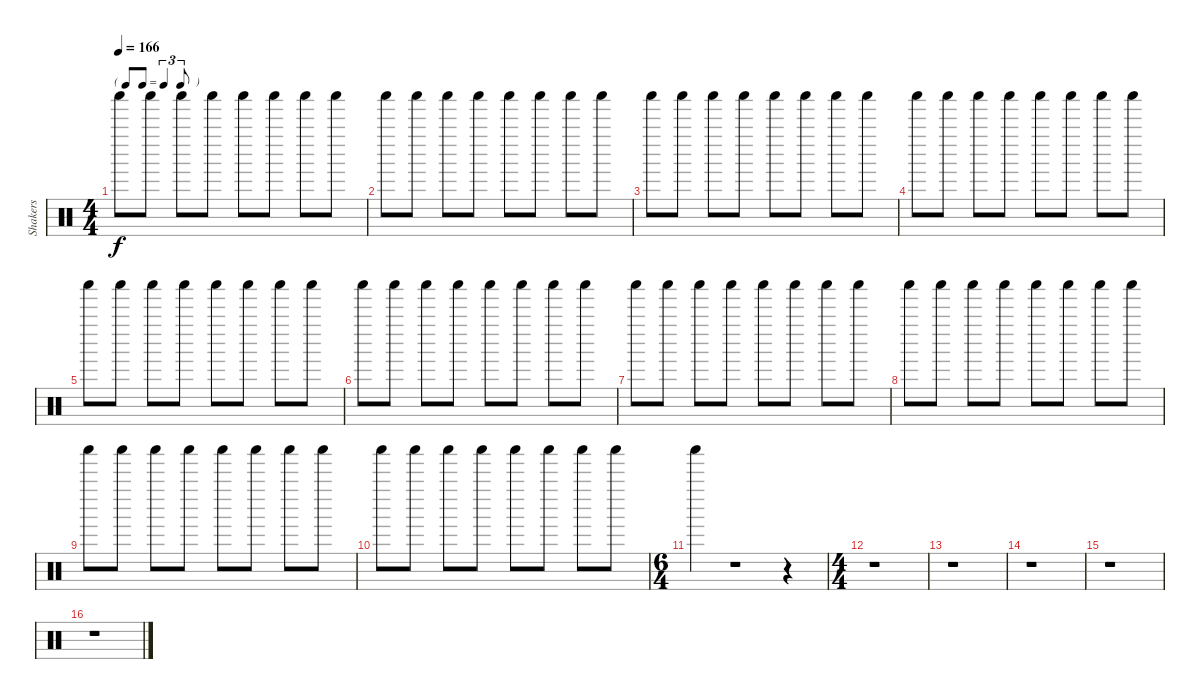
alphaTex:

\track ("Shakers" "Shakers") {instrument percussion}
\staff {score}
\articulation defaults
\ts (4 4)
\tf triplet8th
\tempo 166
\clef neutral
\ks c "Shaker (hit)".8{dy f} "Shaker (hit)".8 "Shaker (hit)".8 "Shaker (hit)".8 "Shaker (hit)".8 "Shaker (hit)".8 "Shaker (hit)".8 "Shaker (hit)".8
|
"Shaker (hit)".8 "Shaker (hit)".8 "Shaker (hit)".8 "Shaker (hit)".8 "Shaker (hit)".8 "Shaker (hit)".8 "Shaker (hit)".8 "Shaker (hit)".8 |
"Shaker (hit)".8 "Shaker (hit)".8 "Shaker (hit)".8 "Shaker (hit)".8 "Shaker (hit)".8 "Shaker (hit)".8 "Shaker (hit)".8 "Shaker (hit)".8 |
"Shaker (hit)".8 "Shaker (hit)".8 "Shaker (hit)".8 "Shaker (hit)".8 "Shaker (hit)".8 "Shaker (hit)".8 "Shaker (hit)".8 "Shaker (hit)".8 |
"Shaker (hit)".8 "Shaker (hit)".8 "Shaker (hit)".8 "Shaker (hit)".8 "Shaker (hit)".8 "Shaker (hit)".8 "Shaker (hit)".8 "Shaker (hit)".8 |
"Shaker (hit)".8 "Shaker (hit)".8 "Shaker (hit)".8 "Shaker (hit)".8 "Shaker (hit)".8 "Shaker (hit)".8 "Shaker (hit)".8 "Shaker (hit)".8 |
"Shaker (hit)".8 "Shaker (hit)".8 "Shaker (hit)".8 "Shaker (hit)".8 "Shaker (hit)".8 "Shaker (hit)".8 "Shaker (hit)".8 "Shaker (hit)".8 |
"Shaker (hit)".8 "Shaker (hit)".8 "Shaker (hit)".8 "Shaker (hit)".8 "Shaker (hit)".8 "Shaker (hit)".8 "Shaker (hit)".8 "Shaker (hit)".8 |
"Shaker (hit)".8 "Shaker (hit)".8 "Shaker (hit)".8 "Shaker (hit)".8 "Shaker (hit)".8 "Shaker (hit)".8 "Shaker (hit)".8 "Shaker (hit)".8 |
"Shaker (hit)".8 "Shaker (hit)".8 "Shaker (hit)".8 "Shaker (hit)".8 "Shaker (hit)".8 "Shaker (hit)".8 "Shaker (hit)".8 "Shaker (hit)".8 |
\ts (6 4)
"Shaker (hit)".4 r.1 r.4 |
\ts (4 4)
r.1 |
r.1 |
r.1 |
r.1 |
r.1
